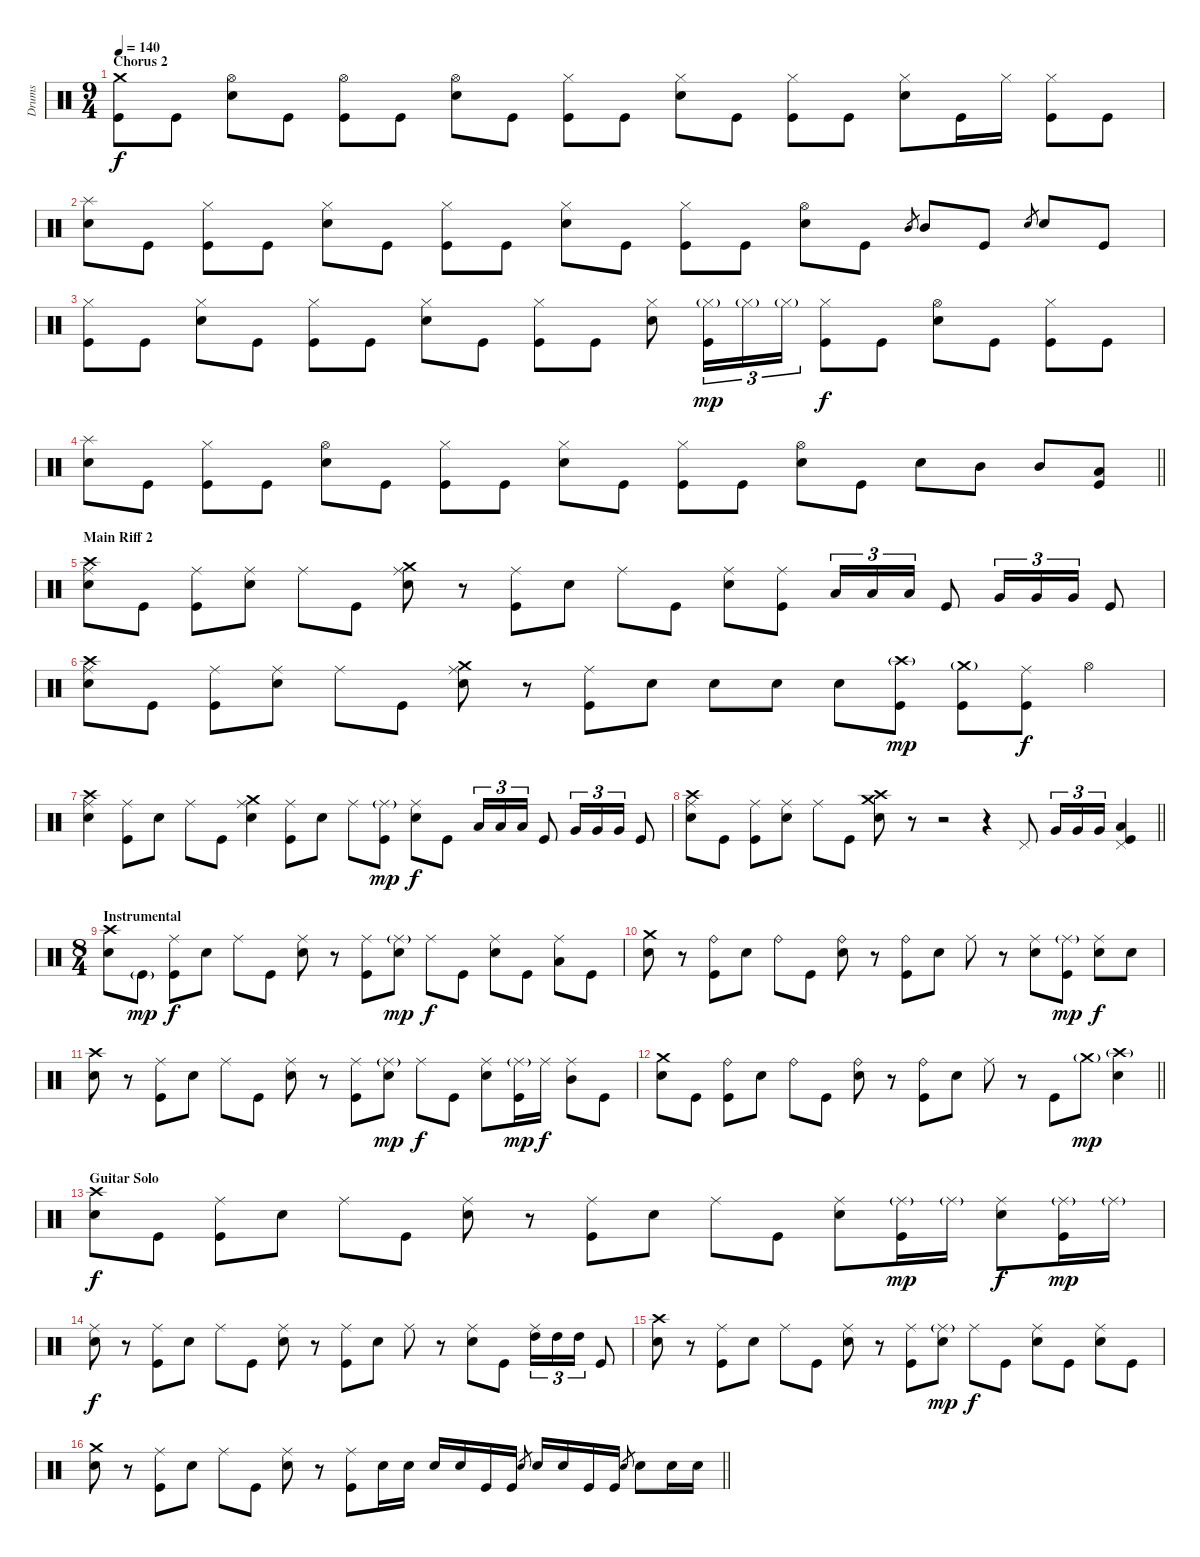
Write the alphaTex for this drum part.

\track ("Drums" "Drums") {instrument percussion}
\staff {score}
\articulation defaults
\ts (9 4)
\section ("" "Chorus 2")
\tempo 140
\clef neutral
\ks c
("Crash medium (hit)" "Kick (hit)").8{dy f} "Kick (hit)".8 ("Hi-Hat (open)" "Snare (hit) 2").8 "Kick (hit)".8 ("Hi-Hat (open)" "Kick (hit)").8 "Kick (hit)".8 ("Hi-Hat (open)" "Snare (hit) 2").8 "Kick (hit)".8 ("Hi-Hat (closed)" "Kick (hit)").8 "Kick (hit)".8 ("Hi-Hat (closed)" "Snare (hit) 2").8 "Kick (hit)".8 ("Hi-Hat (closed)" "Kick (hit)").8 "Kick (hit)".8 ("Hi-Hat (closed)" "Snare (hit) 2").8 "Kick (hit)".16 "Hi-Hat (closed)".16 ("Hi-Hat (closed)" "Kick (hit)").8 "Kick (hit)".8 |
("Splash (hit)" "Snare (hit) 2").8 "Kick (hit)".8 ("Hi-Hat (closed)" "Kick (hit)").8 "Kick (hit)".8 ("Hi-Hat (closed)" "Snare (hit) 2").8 "Kick (hit)".8 ("Hi-Hat (closed)" "Kick (hit)").8 "Kick (hit)".8 ("Hi-Hat (closed)" "Snare (hit) 2").8 "Kick (hit)".8 ("Hi-Hat (closed)" "Kick (hit)").8 "Kick (hit)".8 ("Hi-Hat (open)" "Snare (hit) 2").8 "Kick (hit)".8 "Mid Tom (hit)".8{gr} "Mid Tom (hit)".8 "Kick (hit)".8 "Snare (hit) 2".8{gr} "Snare (hit) 2".8 "Kick (hit)".8 |
("Hi-Hat (closed)" "Kick (hit)").8 "Kick (hit)".8 ("Hi-Hat (closed)" "Snare (hit) 2").8 "Kick (hit)".8 ("Hi-Hat (closed)" "Kick (hit)").8 "Kick (hit)".8 ("Hi-Hat (closed)" "Snare (hit) 2").8 "Kick (hit)".8 ("Hi-Hat (closed)" "Kick (hit)").8 "Kick (hit)".8 ("Hi-Hat (closed)" "Snare (hit) 2").8 ("Hi-Hat (closed)"{g} "Kick (hit)").16{tu (3 2) dy mp} "Hi-Hat (closed)"{g}.16{tu (3 2)} "Hi-Hat (closed)"{g}.16{tu (3 2)} ("Hi-Hat (closed)" "Kick (hit)").8{dy f} "Kick (hit)".8 ("Hi-Hat (open)" "Snare (hit) 2").8 "Kick (hit)".8 ("Hi-Hat (closed)" "Kick (hit)").8 "Kick (hit)".8 |
\barLineRight lightlight
("Splash (hit)" "Snare (hit) 2").8 "Kick (hit)".8 ("Hi-Hat (closed)" "Kick (hit)").8 "Kick (hit)".8 ("Hi-Hat (open)" "Snare (hit) 2").8 "Kick (hit)".8 ("Hi-Hat (closed)" "Kick (hit)").8 "Kick (hit)".8 ("Hi-Hat (closed)" "Snare (hit) 2").8 "Kick (hit)".8 ("Hi-Hat (closed)" "Kick (hit)").8 "Kick (hit)".8 ("Hi-Hat (open)" "Snare (hit) 2").8 "Kick (hit)".8 "Snare (hit) 2".8 "Mid Tom (hit)".8 "Mid Tom (hit)".8 ("Low Tom (hit)" "Kick (hit)").8 |
\section ("" "Main Riff 2")
("Ride (middle)" "Crash high (hit)" "Snare (hit) 2").8 "Kick (hit)".8 ("Ride (middle)" "Kick (hit)").8 ("Ride (middle)" "Snare (hit) 2").8 "Ride (middle)".8 "Kick (hit)".8 ("Ride (middle)" "Crash medium (hit)" "Snare (hit) 2").8 r.8 ("Ride (middle)" "Kick (hit)").8 "Snare (hit) 2".8 "Ride (middle)".8 "Kick (hit)".8 ("Ride (middle)" "Snare (hit) 2").8 ("Ride (middle)" "Kick (hit)").8 "Low Tom (hit)".16{tu (3 2)} "Low Tom (hit)".16{tu (3 2)} "Low Tom (hit)".16{tu (3 2)} "Kick (hit)".8 "Very Low Tom (hit)".16{tu (3 2)} "Very Low Tom (hit)".16{tu (3 2)} "Very Low Tom (hit)".16{tu (3 2)} "Kick (hit)".8 |
("Ride (middle)" "Crash high (hit)" "Snare (hit) 2").8 "Kick (hit)".8 ("Ride (middle)" "Kick (hit)").8 ("Ride (middle)" "Snare (hit) 2").8 "Ride (middle)".8 "Kick (hit)".8 ("Ride (middle)" "Crash medium (hit)" "Snare (hit) 2").8 r.8 ("Ride (middle)" "Kick (hit)").8 "Snare (hit) 2".8 "Snare (hit) 2".8 "Snare (hit) 2".8 "Snare (hit) 2".8 ("Crash high (hit)"{g} "Kick (hit)").8{dy mp} ("Crash medium (hit)"{g} "Kick (hit)").8 ("Ride (middle)" "Kick (hit)").8{dy f} "Hi-Hat (open)".4 |
("Ride (middle)" "Crash high (hit)" "Snare (hit) 2").4 ("Ride (middle)" "Kick (hit)").8 "Snare (hit) 2".8 "Ride (middle)".8 "Kick (hit)".8 ("Ride (middle)" "Crash medium (hit)" "Snare (hit) 2").4 ("Ride (middle)" "Kick (hit)").8 "Snare (hit) 2".8 "Ride (middle)".8 ("Ride (middle)"{g} "Kick (hit)").8{dy mp} ("Ride (middle)" "Snare (hit) 2").8{dy f} "Kick (hit)".8 "Low Tom (hit)".16{tu (3 2)} "Low Tom (hit)".16{tu (3 2)} "Low Tom (hit)".16{tu (3 2)} "Kick (hit)".8 "Very Low Tom (hit)".16{tu (3 2)} "Very Low Tom (hit)".16{tu (3 2)} "Very Low Tom (hit)".16{tu (3 2)} "Kick (hit)".8 |
\barLineRight lightlight
("Ride (middle)" "Crash high (hit)" "Snare (hit) 2").8 "Kick (hit)".8 ("Ride (middle)" "Kick (hit)").8 ("Ride (middle)" "Snare (hit) 2").8 "Ride (middle)".8 "Kick (hit)".8 ("Crash high (hit)" "Crash medium (hit)" "Snare (hit) 2").8 r.8 r.2 r.4 "Pedal Hi-Hat (hit)".8 "Very Low Tom (hit)".16{tu (3 2)} "Very Low Tom (hit)".16{tu (3 2)} "Very Low Tom (hit)".16{tu (3 2)} ("Low Floor Tom (hit)" "Pedal Hi-Hat (hit)" "Kick (hit)").4 |
\ts (8 4)
\section ("" "Instrumental")
("Crash high (hit)" "Snare (hit) 2").8 "Kick (hit)"{g}.8{dy mp} ("Ride (middle)" "Kick (hit)").8{dy f} "Snare (hit) 2".8 "Ride (middle)".8 "Kick (hit)".8 ("Ride (middle)" "Snare (hit) 2").8 r.8 ("Ride (middle)" "Kick (hit)").8 ("Ride (middle)"{g} "Snare (hit) 2").8{dy mp} "Ride (middle)".8{dy f} "Kick (hit)".8 ("Ride (middle)" "Snare (hit) 2").8 "Kick (hit)".8 ("Ride (middle)" "Low Tom (hit)").8 "Kick (hit)".8 |
("Crash medium (hit)" "Snare (hit) 2").8 r.8 ("Ride (bell)" "Kick (hit)").8 "Snare (hit) 2".8 "Ride (bell)".8 "Kick (hit)".8 ("Ride (bell)" "Snare (hit) 2").8 r.8 ("Ride (bell)" "Kick (hit)").8 "Snare (hit) 2".8 "Ride (middle)".8 r.8 ("Ride (middle)" "Snare (hit) 2").8 ("Ride (middle)"{g} "Kick (hit)").8{dy mp} ("Ride (middle)" "Snare (hit) 2").8{dy f} "Snare (hit) 2".8 |
("Crash high (hit)" "Snare (hit) 2").8 r.8 ("Ride (middle)" "Kick (hit)").8 "Snare (hit) 2".8 "Ride (middle)".8 "Kick (hit)".8 ("Ride (middle)" "Snare (hit) 2").8 r.8 ("Ride (middle)" "Kick (hit)").8 ("Ride (middle)"{g} "Snare (hit) 2").8{dy mp} "Ride (middle)".8{dy f} "Kick (hit)".8 ("Ride (middle)" "Snare (hit) 2").8 ("Ride (middle)"{g} "Kick (hit)").16{dy mp} "Ride (middle)".16{dy f} ("Ride (middle)" "Mid Tom (hit)").8 "Kick (hit)".8 |
\barLineRight lightlight
("Crash medium (hit)" "Snare (hit) 2").8 "Kick (hit)".8 ("Ride (bell)" "Kick (hit)").8 "Snare (hit) 2".8 "Ride (bell)".8 "Kick (hit)".8 ("Ride (bell)" "Snare (hit) 2").8 r.8 ("Ride (bell)" "Kick (hit)").8 "Snare (hit) 2".8 "Ride (middle)".8 r.8 "Kick (hit)".8 "Crash medium (hit)"{g}.8{dy mp} ("Crash high (hit)"{g} "Snare (hit) 2").4 |
\section ("" "Guitar Solo")
("Crash high (hit)" "Snare (hit) 2").8{dy f} "Kick (hit)".8 ("Ride (middle)" "Kick (hit)").8 "Snare (hit) 2".8 "Ride (middle)".8 "Kick (hit)".8 ("Ride (middle)" "Snare (hit) 2").8 r.8 ("Ride (middle)" "Kick (hit)").8 "Snare (hit) 2".8 "Ride (middle)".8 "Kick (hit)".8 ("Ride (middle)" "Snare (hit) 2").8 ("Ride (middle)"{g} "Kick (hit)").16{dy mp} "Ride (middle)"{g}.16 ("Ride (middle)" "Snare (hit) 2").8{dy f} ("Ride (middle)"{g} "Kick (hit)").16{dy mp} "Ride (middle)"{g}.16 |
("Ride (middle)" "Snare (hit) 2").8{dy f} r.8 ("Ride (middle)" "Kick (hit)").8 "Snare (hit) 2".8 "Ride (middle)".8 "Kick (hit)".8 ("Ride (middle)" "Snare (hit) 2").8 r.8 ("Ride (middle)" "Kick (hit)").8 "Snare (hit) 2".8 "Ride (middle)".8 r.8 ("Ride (middle)" "Snare (hit) 2").8 "Kick (hit)".8 ("Ride (middle)" "High Tom (hit)").16{tu (3 2)} "High Tom (hit)".16{tu (3 2)} "High Tom (hit)".16{tu (3 2)} "Kick (hit)".8 |
("Crash high (hit)" "Snare (hit) 2").8 r.8 ("Ride (middle)" "Kick (hit)").8 "Snare (hit) 2".8 "Ride (middle)".8 "Kick (hit)".8 ("Ride (middle)" "Snare (hit) 2").8 r.8 ("Ride (middle)" "Kick (hit)").8 ("Ride (middle)"{g} "Snare (hit) 2").8{dy mp} "Ride (middle)".8{dy f} "Kick (hit)".8 ("Ride (middle)" "Snare (hit) 2").8 "Kick (hit)".8 ("Ride (middle)" "Snare (hit) 2").8 "Kick (hit)".8 |
\barLineRight lightlight
("Crash medium (hit)" "Snare (hit) 2").8 r.8 ("Ride (middle)" "Kick (hit)").8 "Snare (hit) 2".8 "Ride (middle)".8 "Kick (hit)".8 ("Ride (middle)" "Snare (hit) 2").8 r.8 ("Ride (middle)" "Kick (hit)").8 "Snare (hit) 2".16 "Snare (hit) 2".16 "Snare (hit) 2".16 "Snare (hit) 2".16 "Kick (hit)".16 "Kick (hit)".16 "Snare (hit) 2".8{gr} "Snare (hit) 2".16 "Snare (hit) 2".16 "Kick (hit)".16 "Kick (hit)".16 "Snare (hit) 2".8{gr} "Snare (hit) 2".8 "Snare (hit) 2".16 "Snare (hit) 2".16
